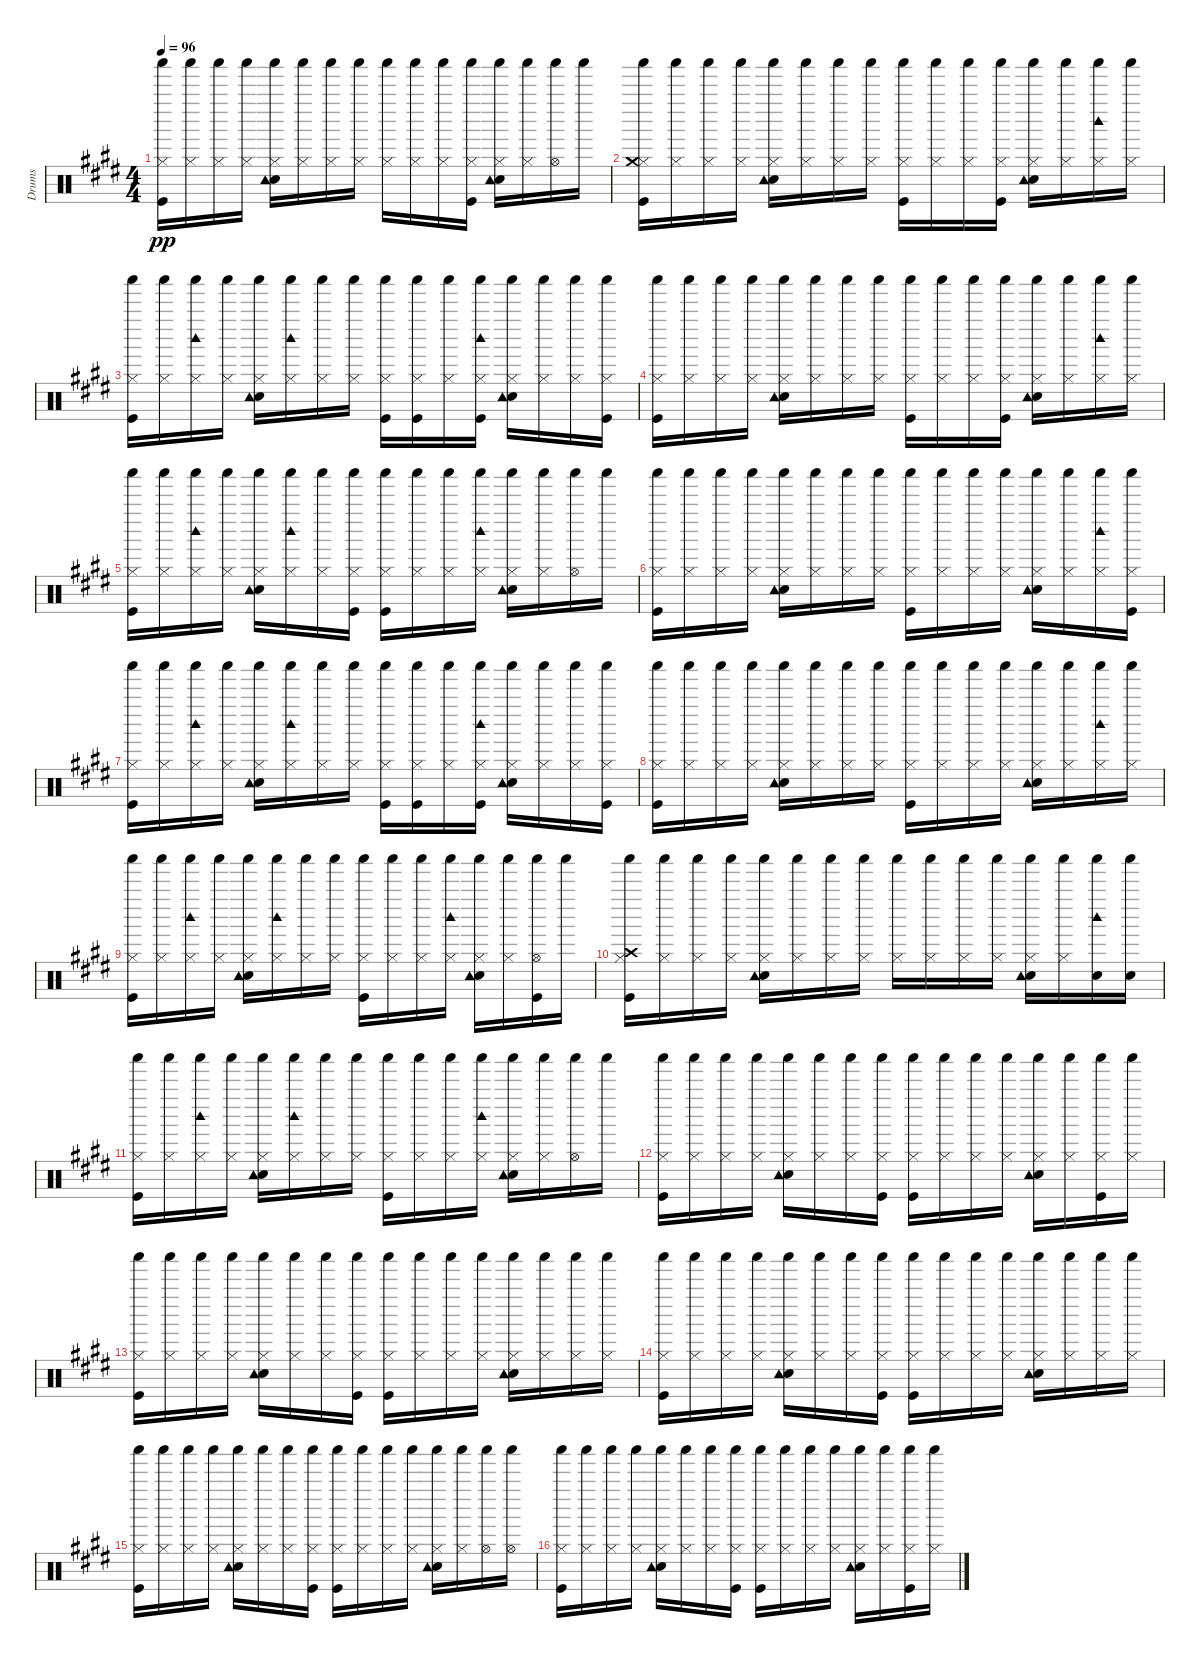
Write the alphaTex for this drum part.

\track ("Drums" "Drums") {instrument percussion}
\staff {score}
\articulation defaults
\ts (4 4)
\tempo 96
\clef neutral
\ks e
("Kick (hit)" "Hi-Hat (closed)" "Shaker (hit)").16{dy pp} ("Hi-Hat (closed)" "Shaker (hit)").16 ("Hi-Hat (closed)" "Shaker (hit)").16 ("Hi-Hat (closed)" "Shaker (hit)").16 ("Electric Snare (hit)" "Hi-Hat (closed)" "Tambourine (hit)" "Shaker (hit)").16 ("Hi-Hat (closed)" "Shaker (hit)").16 ("Hi-Hat (closed)" "Shaker (hit)").16 ("Hi-Hat (closed)" "Shaker (hit)").16 ("Hi-Hat (closed)" "Shaker (hit)").16 ("Hi-Hat (closed)" "Shaker (hit)").16 ("Hi-Hat (closed)" "Shaker (hit)").16 ("Kick (hit)" "Hi-Hat (closed)" "Shaker (hit)").16 ("Electric Snare (hit)" "Hi-Hat (closed)" "Tambourine (hit)" "Shaker (hit)").16 ("Hi-Hat (closed)" "Shaker (hit)").16 ("Hi-Hat (open)" "Shaker (hit)").16 "Shaker (hit)".16 |
("Kick (hit)" "Hi-Hat (closed)" "Crash medium (hit)" "Shaker (hit)").16 ("Hi-Hat (closed)" "Shaker (hit)").16 ("Hi-Hat (closed)" "Shaker (hit)").16 ("Hi-Hat (closed)" "Shaker (hit)").16 ("Electric Snare (hit)" "Hi-Hat (closed)" "Tambourine (hit)" "Shaker (hit)").16 ("Hi-Hat (closed)" "Shaker (hit)").16 ("Hi-Hat (closed)" "Shaker (hit)").16 ("Hi-Hat (closed)" "Shaker (hit)").16 ("Kick (hit)" "Hi-Hat (closed)" "Shaker (hit)").16 ("Hi-Hat (closed)" "Shaker (hit)").16 ("Hi-Hat (closed)" "Shaker (hit)").16 ("Kick (hit)" "Hi-Hat (closed)" "Shaker (hit)").16 ("Electric Snare (hit)" "Hi-Hat (closed)" "Tambourine (hit)" "Shaker (hit)").16 ("Hi-Hat (closed)" "Shaker (hit)").16 ("Hi-Hat (closed)" "Woodblock high (hit)" "Shaker (hit)").16 ("Hi-Hat (closed)" "Shaker (hit)").16 |
("Kick (hit)" "Hi-Hat (closed)" "Shaker (hit)").16 ("Hi-Hat (closed)" "Shaker (hit)").16 ("Hi-Hat (closed)" "Woodblock high (hit)" "Shaker (hit)").16 ("Hi-Hat (closed)" "Shaker (hit)").16 ("Electric Snare (hit)" "Hi-Hat (closed)" "Tambourine (hit)" "Shaker (hit)").16 ("Hi-Hat (closed)" "Woodblock high (hit)" "Shaker (hit)").16 ("Hi-Hat (closed)" "Shaker (hit)").16 ("Hi-Hat (closed)" "Shaker (hit)").16 ("Kick (hit)" "Hi-Hat (closed)" "Shaker (hit)").16 ("Kick (hit)" "Hi-Hat (closed)" "Shaker (hit)").16 ("Hi-Hat (closed)" "Shaker (hit)").16 ("Kick (hit)" "Hi-Hat (closed)" "Woodblock high (hit)" "Shaker (hit)").16 ("Electric Snare (hit)" "Hi-Hat (closed)" "Tambourine (hit)" "Shaker (hit)").16 ("Hi-Hat (closed)" "Shaker (hit)").16 ("Hi-Hat (closed)" "Shaker (hit)").16 ("Kick (hit)" "Hi-Hat (closed)" "Shaker (hit)").16 |
("Kick (hit)" "Hi-Hat (closed)" "Shaker (hit)").16 ("Hi-Hat (closed)" "Shaker (hit)").16 ("Hi-Hat (closed)" "Shaker (hit)").16 ("Hi-Hat (closed)" "Shaker (hit)").16 ("Electric Snare (hit)" "Hi-Hat (closed)" "Tambourine (hit)" "Shaker (hit)").16 ("Hi-Hat (closed)" "Shaker (hit)").16 ("Hi-Hat (closed)" "Shaker (hit)").16 ("Hi-Hat (closed)" "Shaker (hit)").16 ("Kick (hit)" "Hi-Hat (closed)" "Shaker (hit)").16 ("Hi-Hat (closed)" "Shaker (hit)").16 ("Hi-Hat (closed)" "Shaker (hit)").16 ("Kick (hit)" "Hi-Hat (closed)" "Shaker (hit)").16 ("Electric Snare (hit)" "Hi-Hat (closed)" "Tambourine (hit)" "Shaker (hit)").16 ("Hi-Hat (closed)" "Shaker (hit)").16 ("Hi-Hat (closed)" "Woodblock high (hit)" "Shaker (hit)").16 ("Hi-Hat (closed)" "Shaker (hit)").16 |
("Kick (hit)" "Hi-Hat (closed)" "Shaker (hit)").16 ("Hi-Hat (closed)" "Shaker (hit)").16 ("Hi-Hat (closed)" "Woodblock high (hit)" "Shaker (hit)").16 ("Hi-Hat (closed)" "Shaker (hit)").16 ("Electric Snare (hit)" "Hi-Hat (closed)" "Tambourine (hit)" "Shaker (hit)").16 ("Hi-Hat (closed)" "Woodblock high (hit)" "Shaker (hit)").16 ("Hi-Hat (closed)" "Shaker (hit)").16 ("Kick (hit)" "Hi-Hat (closed)" "Shaker (hit)").16 ("Kick (hit)" "Hi-Hat (closed)" "Shaker (hit)").16 ("Hi-Hat (closed)" "Shaker (hit)").16 ("Hi-Hat (closed)" "Shaker (hit)").16 ("Hi-Hat (closed)" "Woodblock high (hit)" "Shaker (hit)").16 ("Electric Snare (hit)" "Hi-Hat (closed)" "Tambourine (hit)" "Shaker (hit)").16 ("Hi-Hat (closed)" "Shaker (hit)").16 ("Hi-Hat (open)" "Shaker (hit)").16 "Shaker (hit)".16 |
("Kick (hit)" "Hi-Hat (closed)" "Shaker (hit)").16 ("Hi-Hat (closed)" "Shaker (hit)").16 ("Hi-Hat (closed)" "Shaker (hit)").16 ("Hi-Hat (closed)" "Shaker (hit)").16 ("Electric Snare (hit)" "Hi-Hat (closed)" "Tambourine (hit)" "Shaker (hit)").16 ("Hi-Hat (closed)" "Shaker (hit)").16 ("Hi-Hat (closed)" "Shaker (hit)").16 ("Hi-Hat (closed)" "Shaker (hit)").16 ("Kick (hit)" "Hi-Hat (closed)" "Shaker (hit)").16 ("Hi-Hat (closed)" "Shaker (hit)").16 ("Hi-Hat (closed)" "Shaker (hit)").16 ("Hi-Hat (closed)" "Shaker (hit)").16 ("Electric Snare (hit)" "Hi-Hat (closed)" "Tambourine (hit)" "Shaker (hit)").16 ("Hi-Hat (closed)" "Shaker (hit)").16 ("Hi-Hat (closed)" "Woodblock high (hit)" "Shaker (hit)").16 ("Kick (hit)" "Hi-Hat (closed)" "Shaker (hit)").16 |
("Kick (hit)" "Hi-Hat (closed)" "Shaker (hit)").16 ("Hi-Hat (closed)" "Shaker (hit)").16 ("Hi-Hat (closed)" "Woodblock high (hit)" "Shaker (hit)").16 ("Hi-Hat (closed)" "Shaker (hit)").16 ("Electric Snare (hit)" "Hi-Hat (closed)" "Tambourine (hit)" "Shaker (hit)").16 ("Hi-Hat (closed)" "Woodblock high (hit)" "Shaker (hit)").16 ("Hi-Hat (closed)" "Shaker (hit)").16 ("Hi-Hat (closed)" "Shaker (hit)").16 ("Kick (hit)" "Hi-Hat (closed)" "Shaker (hit)").16 ("Kick (hit)" "Hi-Hat (closed)" "Shaker (hit)").16 ("Hi-Hat (closed)" "Shaker (hit)").16 ("Kick (hit)" "Hi-Hat (closed)" "Woodblock high (hit)" "Shaker (hit)").16 ("Electric Snare (hit)" "Hi-Hat (closed)" "Tambourine (hit)" "Shaker (hit)").16 ("Hi-Hat (closed)" "Shaker (hit)").16 ("Hi-Hat (closed)" "Shaker (hit)").16 ("Kick (hit)" "Hi-Hat (closed)" "Shaker (hit)").16 |
("Kick (hit)" "Hi-Hat (closed)" "Shaker (hit)").16 ("Hi-Hat (closed)" "Shaker (hit)").16 ("Hi-Hat (closed)" "Shaker (hit)").16 ("Hi-Hat (closed)" "Shaker (hit)").16 ("Electric Snare (hit)" "Hi-Hat (closed)" "Tambourine (hit)" "Shaker (hit)").16 ("Hi-Hat (closed)" "Shaker (hit)").16 ("Hi-Hat (closed)" "Shaker (hit)").16 ("Hi-Hat (closed)" "Shaker (hit)").16 ("Kick (hit)" "Hi-Hat (closed)" "Shaker (hit)").16 ("Hi-Hat (closed)" "Shaker (hit)").16 ("Hi-Hat (closed)" "Shaker (hit)").16 ("Hi-Hat (closed)" "Shaker (hit)").16 ("Electric Snare (hit)" "Hi-Hat (closed)" "Tambourine (hit)" "Shaker (hit)").16 ("Hi-Hat (closed)" "Shaker (hit)").16 ("Hi-Hat (closed)" "Woodblock high (hit)" "Shaker (hit)").16 ("Hi-Hat (closed)" "Shaker (hit)").16 |
("Kick (hit)" "Hi-Hat (closed)" "Shaker (hit)").16 ("Hi-Hat (closed)" "Shaker (hit)").16 ("Hi-Hat (closed)" "Woodblock high (hit)" "Shaker (hit)").16 ("Hi-Hat (closed)" "Shaker (hit)").16 ("Electric Snare (hit)" "Hi-Hat (closed)" "Tambourine (hit)" "Shaker (hit)").16 ("Hi-Hat (closed)" "Woodblock high (hit)" "Shaker (hit)").16 ("Hi-Hat (closed)" "Shaker (hit)").16 ("Hi-Hat (closed)" "Shaker (hit)").16 ("Kick (hit)" "Hi-Hat (closed)" "Shaker (hit)").16 ("Hi-Hat (closed)" "Shaker (hit)").16 ("Hi-Hat (closed)" "Shaker (hit)").16 ("Hi-Hat (closed)" "Woodblock high (hit)" "Shaker (hit)").16 ("Electric Snare (hit)" "Hi-Hat (closed)" "Tambourine (hit)" "Shaker (hit)").16 ("Hi-Hat (closed)" "Shaker (hit)").16 ("Kick (hit)" "Hi-Hat (open)" "Shaker (hit)").16 "Shaker (hit)".16 |
("Kick (hit)" "Hi-Hat (closed)" "Crash high (hit)" "Shaker (hit)").16 ("Hi-Hat (closed)" "Shaker (hit)").16 ("Hi-Hat (closed)" "Shaker (hit)").16 ("Hi-Hat (closed)" "Shaker (hit)").16 ("Electric Snare (hit)" "Hi-Hat (closed)" "Tambourine (hit)" "Shaker (hit)").16 ("Hi-Hat (closed)" "Shaker (hit)").16 ("Hi-Hat (closed)" "Shaker (hit)").16 ("Hi-Hat (closed)" "Shaker (hit)").16 ("Hi-Hat (closed)" "Shaker (hit)").16 ("Hi-Hat (closed)" "Shaker (hit)").16 ("Hi-Hat (closed)" "Shaker (hit)").16 ("Hi-Hat (closed)" "Shaker (hit)").16 ("Electric Snare (hit)" "Hi-Hat (closed)" "Tambourine (hit)" "Shaker (hit)").16 ("Hi-Hat (closed)" "Shaker (hit)").16 ("Electric Snare (hit)" "Woodblock high (hit)" "Shaker (hit)").16 ("Electric Snare (hit)" "Shaker (hit)").16 |
("Kick (hit)" "Hi-Hat (closed)" "Shaker (hit)").16 ("Hi-Hat (closed)" "Shaker (hit)").16 ("Hi-Hat (closed)" "Woodblock high (hit)" "Shaker (hit)").16 ("Hi-Hat (closed)" "Shaker (hit)").16 ("Electric Snare (hit)" "Hi-Hat (closed)" "Tambourine (hit)" "Shaker (hit)").16 ("Hi-Hat (closed)" "Woodblock high (hit)" "Shaker (hit)").16 ("Hi-Hat (closed)" "Shaker (hit)").16 ("Hi-Hat (closed)" "Shaker (hit)").16 ("Kick (hit)" "Hi-Hat (closed)" "Shaker (hit)").16 ("Hi-Hat (closed)" "Shaker (hit)").16 ("Hi-Hat (closed)" "Shaker (hit)").16 ("Hi-Hat (closed)" "Woodblock high (hit)" "Shaker (hit)").16 ("Electric Snare (hit)" "Hi-Hat (closed)" "Tambourine (hit)" "Shaker (hit)").16 ("Hi-Hat (closed)" "Shaker (hit)").16 ("Hi-Hat (open)" "Shaker (hit)").16 "Shaker (hit)".16 |
("Kick (hit)" "Hi-Hat (closed)" "Shaker (hit)").16 ("Hi-Hat (closed)" "Shaker (hit)").16 ("Hi-Hat (closed)" "Shaker (hit)").16 ("Hi-Hat (closed)" "Shaker (hit)").16 ("Electric Snare (hit)" "Hi-Hat (closed)" "Tambourine (hit)" "Shaker (hit)").16 ("Hi-Hat (closed)" "Shaker (hit)").16 ("Hi-Hat (closed)" "Shaker (hit)").16 ("Kick (hit)" "Hi-Hat (closed)" "Shaker (hit)").16 ("Kick (hit)" "Hi-Hat (closed)" "Shaker (hit)").16 ("Hi-Hat (closed)" "Shaker (hit)").16 ("Hi-Hat (closed)" "Shaker (hit)").16 ("Hi-Hat (closed)" "Shaker (hit)").16 ("Electric Snare (hit)" "Hi-Hat (closed)" "Tambourine (hit)" "Shaker (hit)").16 ("Hi-Hat (closed)" "Shaker (hit)").16 ("Kick (hit)" "Hi-Hat (closed)" "Shaker (hit)").16 ("Hi-Hat (closed)" "Shaker (hit)").16 |
("Kick (hit)" "Hi-Hat (closed)" "Shaker (hit)").16 ("Hi-Hat (closed)" "Shaker (hit)").16 ("Hi-Hat (closed)" "Shaker (hit)").16 ("Hi-Hat (closed)" "Shaker (hit)").16 ("Electric Snare (hit)" "Hi-Hat (closed)" "Tambourine (hit)" "Shaker (hit)").16 ("Hi-Hat (closed)" "Shaker (hit)").16 ("Hi-Hat (closed)" "Shaker (hit)").16 ("Kick (hit)" "Hi-Hat (closed)" "Shaker (hit)").16 ("Kick (hit)" "Hi-Hat (closed)" "Shaker (hit)").16 ("Hi-Hat (closed)" "Shaker (hit)").16 ("Hi-Hat (closed)" "Shaker (hit)").16 ("Hi-Hat (closed)" "Shaker (hit)").16 ("Electric Snare (hit)" "Hi-Hat (closed)" "Tambourine (hit)" "Shaker (hit)").16 ("Hi-Hat (closed)" "Shaker (hit)").16 ("Hi-Hat (closed)" "Shaker (hit)").16 ("Hi-Hat (closed)" "Shaker (hit)").16 |
("Kick (hit)" "Hi-Hat (closed)" "Shaker (hit)").16 ("Hi-Hat (closed)" "Shaker (hit)").16 ("Hi-Hat (closed)" "Shaker (hit)").16 ("Hi-Hat (closed)" "Shaker (hit)").16 ("Electric Snare (hit)" "Hi-Hat (closed)" "Tambourine (hit)" "Shaker (hit)").16 ("Hi-Hat (closed)" "Shaker (hit)").16 ("Hi-Hat (closed)" "Shaker (hit)").16 ("Kick (hit)" "Hi-Hat (closed)" "Shaker (hit)").16 ("Kick (hit)" "Hi-Hat (closed)" "Shaker (hit)").16 ("Hi-Hat (closed)" "Shaker (hit)").16 ("Hi-Hat (closed)" "Shaker (hit)").16 ("Hi-Hat (closed)" "Shaker (hit)").16 ("Electric Snare (hit)" "Hi-Hat (closed)" "Tambourine (hit)" "Shaker (hit)").16 ("Hi-Hat (closed)" "Shaker (hit)").16 ("Hi-Hat (closed)" "Shaker (hit)").16 ("Hi-Hat (closed)" "Shaker (hit)").16 |
("Kick (hit)" "Hi-Hat (closed)" "Shaker (hit)").16 ("Hi-Hat (closed)" "Shaker (hit)").16 ("Hi-Hat (closed)" "Shaker (hit)").16 ("Hi-Hat (closed)" "Shaker (hit)").16 ("Electric Snare (hit)" "Hi-Hat (closed)" "Tambourine (hit)" "Shaker (hit)").16 ("Hi-Hat (closed)" "Shaker (hit)").16 ("Hi-Hat (closed)" "Shaker (hit)").16 ("Kick (hit)" "Hi-Hat (closed)" "Shaker (hit)").16 ("Kick (hit)" "Hi-Hat (closed)" "Shaker (hit)").16 ("Hi-Hat (closed)" "Shaker (hit)").16 ("Hi-Hat (closed)" "Shaker (hit)").16 ("Hi-Hat (closed)" "Shaker (hit)").16 ("Electric Snare (hit)" "Hi-Hat (closed)" "Tambourine (hit)" "Shaker (hit)").16 ("Hi-Hat (closed)" "Shaker (hit)").16 ("Hi-Hat (open)" "Shaker (hit)").16 ("Hi-Hat (open)" "Shaker (hit)").16 |
("Kick (hit)" "Hi-Hat (closed)" "Shaker (hit)").16 ("Hi-Hat (closed)" "Shaker (hit)").16 ("Hi-Hat (closed)" "Shaker (hit)").16 ("Hi-Hat (closed)" "Shaker (hit)").16 ("Electric Snare (hit)" "Hi-Hat (closed)" "Tambourine (hit)" "Shaker (hit)").16 ("Hi-Hat (closed)" "Shaker (hit)").16 ("Hi-Hat (closed)" "Shaker (hit)").16 ("Kick (hit)" "Hi-Hat (closed)" "Shaker (hit)").16 ("Kick (hit)" "Hi-Hat (closed)" "Shaker (hit)").16 ("Hi-Hat (closed)" "Shaker (hit)").16 ("Hi-Hat (closed)" "Shaker (hit)").16 ("Hi-Hat (closed)" "Shaker (hit)").16 ("Electric Snare (hit)" "Hi-Hat (closed)" "Tambourine (hit)" "Shaker (hit)").16 ("Hi-Hat (closed)" "Shaker (hit)").16 ("Kick (hit)" "Hi-Hat (closed)" "Shaker (hit)").16 ("Hi-Hat (closed)" "Shaker (hit)").16
